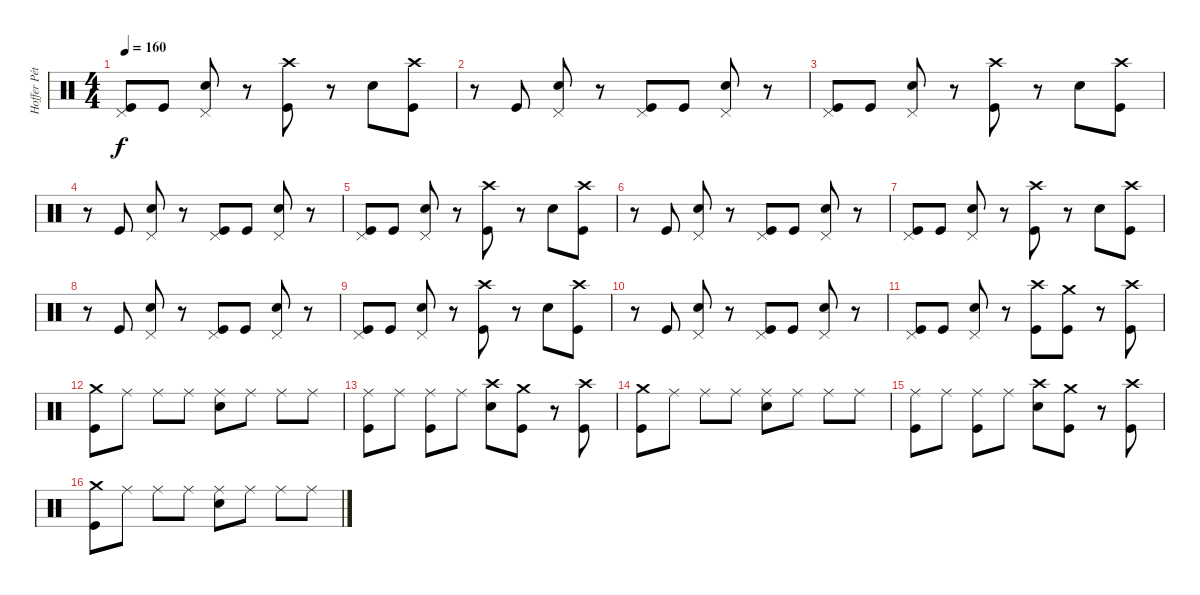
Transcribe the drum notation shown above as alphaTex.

\track ("Hoffer Péter" "Hoffer Pét") {instrument percussion}
\staff {score}
\articulation defaults
\ts (4 4)
\tempo 160
\clef neutral
\ks c
("Pedal Hi-Hat (hit)" "Kick (hit)").8{dy f} "Kick (hit)".8 ("Pedal Hi-Hat (hit)" "Electric Snare (hit)").8 r.8 ("Crash high (hit)" "Kick (hit)").8 r.8 "Electric Snare (hit)".8 ("Crash high (hit)" "Kick (hit)").8 |
r.8 "Kick (hit)".8 ("Pedal Hi-Hat (hit)" "Electric Snare (hit)").8 r.8 ("Pedal Hi-Hat (hit)" "Kick (hit)").8 "Kick (hit)".8 ("Pedal Hi-Hat (hit)" "Electric Snare (hit)").8 r.8 |
("Pedal Hi-Hat (hit)" "Kick (hit)").8 "Kick (hit)".8 ("Pedal Hi-Hat (hit)" "Electric Snare (hit)").8 r.8 ("Crash high (hit)" "Kick (hit)").8 r.8 "Electric Snare (hit)".8 ("Crash high (hit)" "Kick (hit)").8 |
r.8 "Kick (hit)".8 ("Pedal Hi-Hat (hit)" "Electric Snare (hit)").8 r.8 ("Pedal Hi-Hat (hit)" "Kick (hit)").8 "Kick (hit)".8 ("Pedal Hi-Hat (hit)" "Electric Snare (hit)").8 r.8 |
("Pedal Hi-Hat (hit)" "Kick (hit)").8 "Kick (hit)".8 ("Pedal Hi-Hat (hit)" "Electric Snare (hit)").8 r.8 ("Crash high (hit)" "Kick (hit)").8 r.8 "Electric Snare (hit)".8 ("Crash high (hit)" "Kick (hit)").8 |
r.8 "Kick (hit)".8 ("Pedal Hi-Hat (hit)" "Electric Snare (hit)").8 r.8 ("Pedal Hi-Hat (hit)" "Kick (hit)").8 "Kick (hit)".8 ("Pedal Hi-Hat (hit)" "Electric Snare (hit)").8 r.8 |
("Pedal Hi-Hat (hit)" "Kick (hit)").8 "Kick (hit)".8 ("Pedal Hi-Hat (hit)" "Electric Snare (hit)").8 r.8 ("Crash high (hit)" "Kick (hit)").8 r.8 "Electric Snare (hit)".8 ("Crash high (hit)" "Kick (hit)").8 |
r.8 "Kick (hit)".8 ("Pedal Hi-Hat (hit)" "Electric Snare (hit)").8 r.8 ("Pedal Hi-Hat (hit)" "Kick (hit)").8 "Kick (hit)".8 ("Pedal Hi-Hat (hit)" "Electric Snare (hit)").8 r.8 |
("Pedal Hi-Hat (hit)" "Kick (hit)").8 "Kick (hit)".8 ("Pedal Hi-Hat (hit)" "Electric Snare (hit)").8 r.8 ("Crash high (hit)" "Kick (hit)").8 r.8 "Electric Snare (hit)".8 ("Crash high (hit)" "Kick (hit)").8 |
r.8 "Kick (hit)".8 ("Pedal Hi-Hat (hit)" "Electric Snare (hit)").8 r.8 ("Pedal Hi-Hat (hit)" "Kick (hit)").8 "Kick (hit)".8 ("Pedal Hi-Hat (hit)" "Electric Snare (hit)").8 r.8 |
("Pedal Hi-Hat (hit)" "Kick (hit)").8 "Kick (hit)".8 ("Pedal Hi-Hat (hit)" "Electric Snare (hit)").8 r.8 ("Crash high (hit)" "Kick (hit)").8 ("Crash medium (hit)" "Kick (hit)").8 r.8 ("Crash high (hit)" "Kick (hit)").8 |
("Crash medium (hit)" "Kick (hit)").8 "Ride (middle)".8 "Ride (middle)".8 "Ride (middle)".8 ("Ride (middle)" "Electric Snare (hit)").8 "Ride (middle)".8 "Ride (middle)".8 "Ride (middle)".8 |
("Ride (middle)" "Kick (hit)").8 "Ride (middle)".8 ("Ride (middle)" "Kick (hit)").8 "Ride (middle)".8 ("Crash high (hit)" "Electric Snare (hit)").8 ("Crash medium (hit)" "Kick (hit)").8 r.8 ("Crash high (hit)" "Kick (hit)").8 |
("Crash medium (hit)" "Kick (hit)").8 "Ride (middle)".8 "Ride (middle)".8 "Ride (middle)".8 ("Ride (middle)" "Electric Snare (hit)").8 "Ride (middle)".8 "Ride (middle)".8 "Ride (middle)".8 |
("Ride (middle)" "Kick (hit)").8 "Ride (middle)".8 ("Ride (middle)" "Kick (hit)").8 "Ride (middle)".8 ("Crash high (hit)" "Electric Snare (hit)").8 ("Crash medium (hit)" "Kick (hit)").8 r.8 ("Crash high (hit)" "Kick (hit)").8 |
("Crash medium (hit)" "Kick (hit)").8 "Ride (middle)".8 "Ride (middle)".8 "Ride (middle)".8 ("Ride (middle)" "Electric Snare (hit)").8 "Ride (middle)".8 "Ride (middle)".8 "Ride (middle)".8
